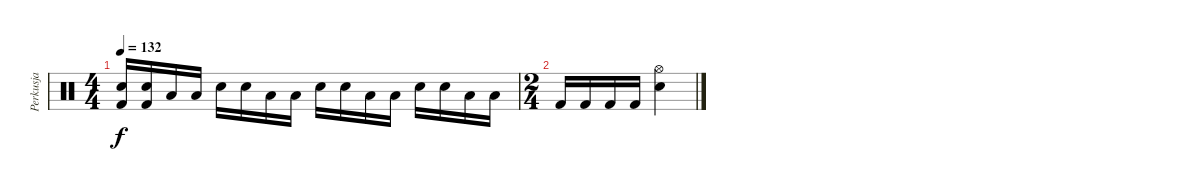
\track ("Perkusja" "Perkusja") {instrument percussion}
\staff {score}
\articulation defaults
\ts (4 4)
\tempo 132
\clef neutral
\ks c
("Electric Snare (hit)" "Kick (hit) 2").16{dy f} ("Electric Snare (hit)" "Kick (hit) 2").16 "Low Tom (hit)".16 "Low Tom (hit)".16 "Electric Snare (hit)".16 "Electric Snare (hit)".16 "Low Tom (hit)".16 "Low Tom (hit)".16 "Electric Snare (hit)".16 "Electric Snare (hit)".16 "Low Tom (hit)".16 "Low Tom (hit)".16 "Electric Snare (hit)".16 "Electric Snare (hit)".16 "Low Tom (hit)".16 "Low Tom (hit)".16 |
\ts (2 4)
"Kick (hit) 2".16 "Kick (hit) 2".16 "Kick (hit) 2".16 "Kick (hit) 2".16 ("Hi-Hat (open)" "Snare (hit) 2").4
